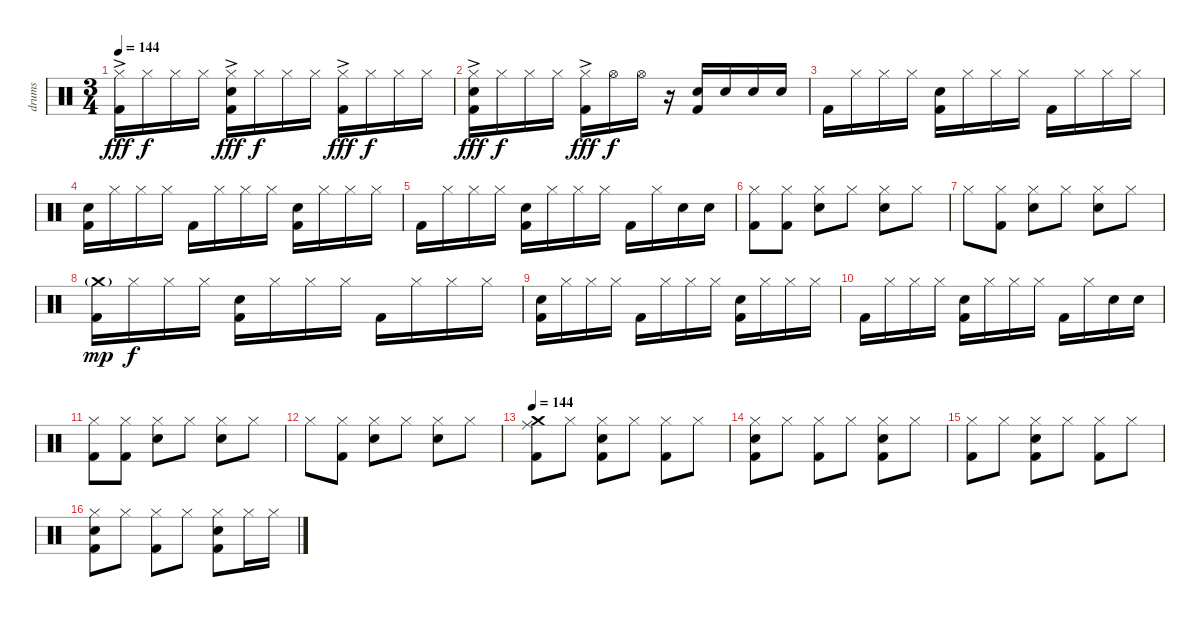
\track ("drums" "drums") {instrument percussion}
\staff {score}
\articulation defaults
\ts (3 4)
\tempo 144
\clef neutral
\ks c
("Hi-Hat (closed)"{ac} "Kick (hit) 2").16{dy fff} "Hi-Hat (closed)".16{dy f} "Hi-Hat (closed)".16 "Hi-Hat (closed)".16 ("Hi-Hat (closed)"{ac} "Snare (hit) 2" "Kick (hit) 2").16{dy fff} "Hi-Hat (closed)".16{dy f} "Hi-Hat (closed)".16 "Hi-Hat (closed)".16 ("Hi-Hat (closed)"{ac} "Kick (hit) 2").16{dy fff} "Hi-Hat (closed)".16{dy f} "Hi-Hat (closed)".16 "Hi-Hat (closed)".16 |
("Hi-Hat (closed)"{ac} "Snare (hit) 2" "Kick (hit) 2").16{dy fff} "Hi-Hat (closed)".16{dy f} "Hi-Hat (closed)".16 "Hi-Hat (closed)".16 ("Hi-Hat (closed)"{ac} "Kick (hit) 2").16{dy fff} "Hi-Hat (open)".16{dy f} "Hi-Hat (open)".16 r.16 ("Snare (hit) 2" "Kick (hit) 2").16 "Snare (hit) 2".16 "Snare (hit) 2".16 "Snare (hit) 2".16 |
"Kick (hit) 2".16 "Hi-Hat (closed)".16 "Hi-Hat (closed)".16 "Hi-Hat (closed)".16 ("Snare (hit) 2" "Kick (hit) 2").16 "Hi-Hat (closed)".16 "Hi-Hat (closed)".16 "Hi-Hat (closed)".16 "Kick (hit) 2".16 "Hi-Hat (closed)".16 "Hi-Hat (closed)".16 "Hi-Hat (closed)".16 |
("Snare (hit) 2" "Kick (hit) 2").16 "Hi-Hat (closed)".16 "Hi-Hat (closed)".16 "Hi-Hat (closed)".16 "Kick (hit) 2".16 "Hi-Hat (closed)".16 "Hi-Hat (closed)".16 "Hi-Hat (closed)".16 ("Snare (hit) 2" "Kick (hit) 2").16 "Hi-Hat (closed)".16 "Hi-Hat (closed)".16 "Hi-Hat (closed)".16 |
"Kick (hit) 2".16 "Hi-Hat (closed)".16 "Hi-Hat (closed)".16 "Hi-Hat (closed)".16 ("Snare (hit) 2" "Kick (hit) 2").16 "Hi-Hat (closed)".16 "Hi-Hat (closed)".16 "Hi-Hat (closed)".16 "Kick (hit) 2".16 "Hi-Hat (closed)".16 "Snare (hit) 2".16 "Snare (hit) 2".16 |
("Hi-Hat (closed)" "Kick (hit) 2").8 ("Hi-Hat (closed)" "Kick (hit) 2").8 ("Hi-Hat (closed)" "Snare (hit) 2").8 "Hi-Hat (closed)".8 ("Hi-Hat (closed)" "Snare (hit) 2").8 "Hi-Hat (closed)".8 |
"Hi-Hat (closed)".8 ("Hi-Hat (closed)" "Kick (hit) 2").8 ("Hi-Hat (closed)" "Snare (hit) 2").8 "Hi-Hat (closed)".8 ("Hi-Hat (closed)" "Snare (hit) 2").8 "Hi-Hat (closed)".8 |
("Crash medium (hit)"{g} "Kick (hit) 2").16{dy mp} "Hi-Hat (closed)".16{dy f} "Hi-Hat (closed)".16 "Hi-Hat (closed)".16 ("Snare (hit) 2" "Kick (hit) 2").16 "Hi-Hat (closed)".16 "Hi-Hat (closed)".16 "Hi-Hat (closed)".16 "Kick (hit) 2".16 "Hi-Hat (closed)".16 "Hi-Hat (closed)".16 "Hi-Hat (closed)".16 |
("Snare (hit) 2" "Kick (hit) 2").16 "Hi-Hat (closed)".16 "Hi-Hat (closed)".16 "Hi-Hat (closed)".16 "Kick (hit) 2".16 "Hi-Hat (closed)".16 "Hi-Hat (closed)".16 "Hi-Hat (closed)".16 ("Snare (hit) 2" "Kick (hit) 2").16 "Hi-Hat (closed)".16 "Hi-Hat (closed)".16 "Hi-Hat (closed)".16 |
"Kick (hit) 2".16 "Hi-Hat (closed)".16 "Hi-Hat (closed)".16 "Hi-Hat (closed)".16 ("Snare (hit) 2" "Kick (hit) 2").16 "Hi-Hat (closed)".16 "Hi-Hat (closed)".16 "Hi-Hat (closed)".16 "Kick (hit) 2".16 "Hi-Hat (closed)".16 "Snare (hit) 2".16 "Snare (hit) 2".16 |
("Hi-Hat (closed)" "Kick (hit) 2").8 ("Hi-Hat (closed)" "Kick (hit) 2").8 ("Hi-Hat (closed)" "Snare (hit) 2").8 "Hi-Hat (closed)".8 ("Hi-Hat (closed)" "Snare (hit) 2").8 "Hi-Hat (closed)".8 |
"Hi-Hat (closed)".8 ("Hi-Hat (closed)" "Kick (hit) 2").8 ("Hi-Hat (closed)" "Snare (hit) 2").8 "Hi-Hat (closed)".8 ("Hi-Hat (closed)" "Snare (hit) 2").8 "Hi-Hat (closed)".8 |
\tempo 144
("Crash medium (hit)" "Ride (middle)" "Kick (hit) 2").8 "Hi-Hat (closed)".8 ("Hi-Hat (closed)" "Snare (hit) 2" "Kick (hit) 2").8 "Hi-Hat (closed)".8 ("Hi-Hat (closed)" "Kick (hit) 2").8 "Hi-Hat (closed)".8 |
("Hi-Hat (closed)" "Snare (hit) 2" "Kick (hit) 2").8 "Hi-Hat (closed)".8 ("Hi-Hat (closed)" "Kick (hit) 2").8 "Hi-Hat (closed)".8 ("Hi-Hat (closed)" "Snare (hit) 2" "Kick (hit) 2").8 "Hi-Hat (closed)".8 |
("Hi-Hat (closed)" "Kick (hit) 2").8 "Hi-Hat (closed)".8 ("Hi-Hat (closed)" "Snare (hit) 2" "Kick (hit) 2").8 "Hi-Hat (closed)".8 ("Hi-Hat (closed)" "Kick (hit) 2").8 "Hi-Hat (closed)".8 |
("Hi-Hat (closed)" "Snare (hit) 2" "Kick (hit) 2").8 "Hi-Hat (closed)".8 ("Hi-Hat (closed)" "Kick (hit) 2").8 "Hi-Hat (closed)".8 ("Hi-Hat (closed)" "Snare (hit) 2" "Kick (hit) 2").8 "Hi-Hat (closed)".16 "Hi-Hat (closed)".16
